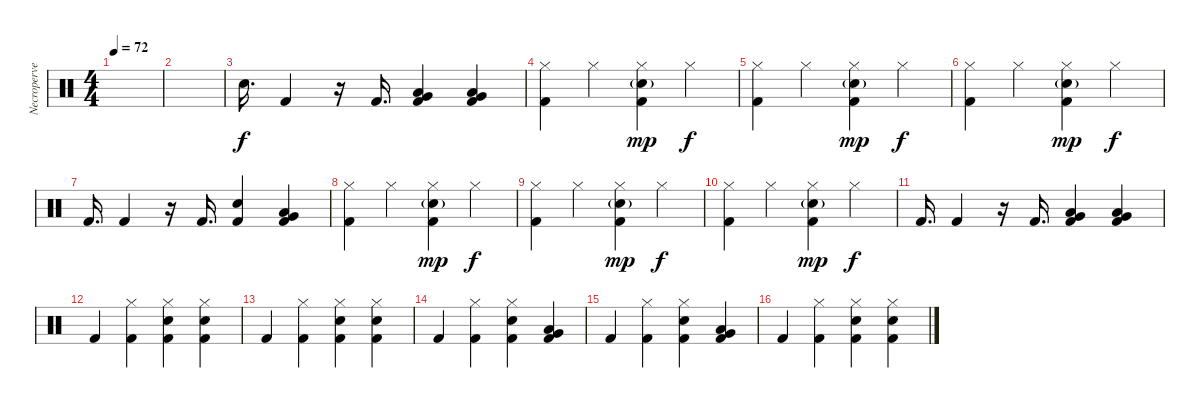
\track ("Necroperversor" "Necroperve") {instrument percussion}
\staff {score}
\articulation defaults
\ts (4 4)
\tempo 72
\clef neutral
\ks c
|
|
"Electric Snare (hit)".16{d dy f} "Kick (hit) 2".4 r.16 "Kick (hit) 2".16{d} ("Low Tom (hit)" "Very Low Tom (hit)" "Kick (hit) 2").4 ("Low Tom (hit)" "Very Low Tom (hit)" "Kick (hit) 2").4 |
("Hi-Hat (closed)" "Kick (hit) 2").4 "Hi-Hat (closed)".4 ("Hi-Hat (closed)" "Electric Snare (hit)"{g} "Kick (hit) 2").4{dy mp} "Hi-Hat (closed)".4{dy f} |
("Hi-Hat (closed)" "Kick (hit) 2").4 "Hi-Hat (closed)".4 ("Hi-Hat (closed)" "Electric Snare (hit)"{g} "Kick (hit) 2").4{dy mp} "Hi-Hat (closed)".4{dy f} |
("Hi-Hat (closed)" "Kick (hit) 2").4 "Hi-Hat (closed)".4 ("Hi-Hat (closed)" "Electric Snare (hit)"{g} "Kick (hit) 2").4{dy mp} "Hi-Hat (closed)".4{dy f} |
"Kick (hit) 2".16{d} "Kick (hit) 2".4 r.16 "Kick (hit) 2".16{d} ("Electric Snare (hit)" "Kick (hit) 2").4 ("Low Tom (hit)" "Very Low Tom (hit)" "Kick (hit) 2").4 |
("Hi-Hat (closed)" "Kick (hit) 2").4 "Hi-Hat (closed)".4 ("Hi-Hat (closed)" "Electric Snare (hit)"{g} "Kick (hit) 2").4{dy mp} "Hi-Hat (closed)".4{dy f} |
("Hi-Hat (closed)" "Kick (hit) 2").4 "Hi-Hat (closed)".4 ("Hi-Hat (closed)" "Electric Snare (hit)"{g} "Kick (hit) 2").4{dy mp} "Hi-Hat (closed)".4{dy f} |
("Hi-Hat (closed)" "Kick (hit) 2").4 "Hi-Hat (closed)".4 ("Hi-Hat (closed)" "Electric Snare (hit)"{g} "Kick (hit) 2").4{dy mp} "Hi-Hat (closed)".4{dy f} |
"Kick (hit) 2".16{d} "Kick (hit) 2".4 r.16 "Kick (hit) 2".16{d} ("Low Tom (hit)" "Very Low Tom (hit)" "Kick (hit) 2").4 ("Low Tom (hit)" "Very Low Tom (hit)" "Kick (hit) 2").4 |
"Kick (hit) 2".4 ("Hi-Hat (closed)" "Kick (hit) 2").4 ("Hi-Hat (closed)" "Electric Snare (hit)" "Kick (hit) 2").4 ("Hi-Hat (closed)" "Electric Snare (hit)" "Kick (hit) 2").4 |
"Kick (hit) 2".4 ("Hi-Hat (closed)" "Kick (hit) 2").4 ("Hi-Hat (closed)" "Electric Snare (hit)" "Kick (hit) 2").4 ("Hi-Hat (closed)" "Electric Snare (hit)" "Kick (hit) 2").4 |
"Kick (hit) 2".4 ("Hi-Hat (closed)" "Kick (hit) 2").4 ("Hi-Hat (closed)" "Electric Snare (hit)" "Kick (hit) 2").4 ("Low Tom (hit)" "Very Low Tom (hit)" "Kick (hit) 2").4 |
"Kick (hit) 2".4 ("Hi-Hat (closed)" "Kick (hit) 2").4 ("Hi-Hat (closed)" "Electric Snare (hit)" "Kick (hit) 2").4 ("Low Tom (hit)" "Very Low Tom (hit)" "Kick (hit) 2").4 |
"Kick (hit) 2".4 ("Hi-Hat (closed)" "Kick (hit) 2").4 ("Hi-Hat (closed)" "Electric Snare (hit)" "Kick (hit) 2").4 ("Hi-Hat (closed)" "Electric Snare (hit)" "Kick (hit) 2").4
